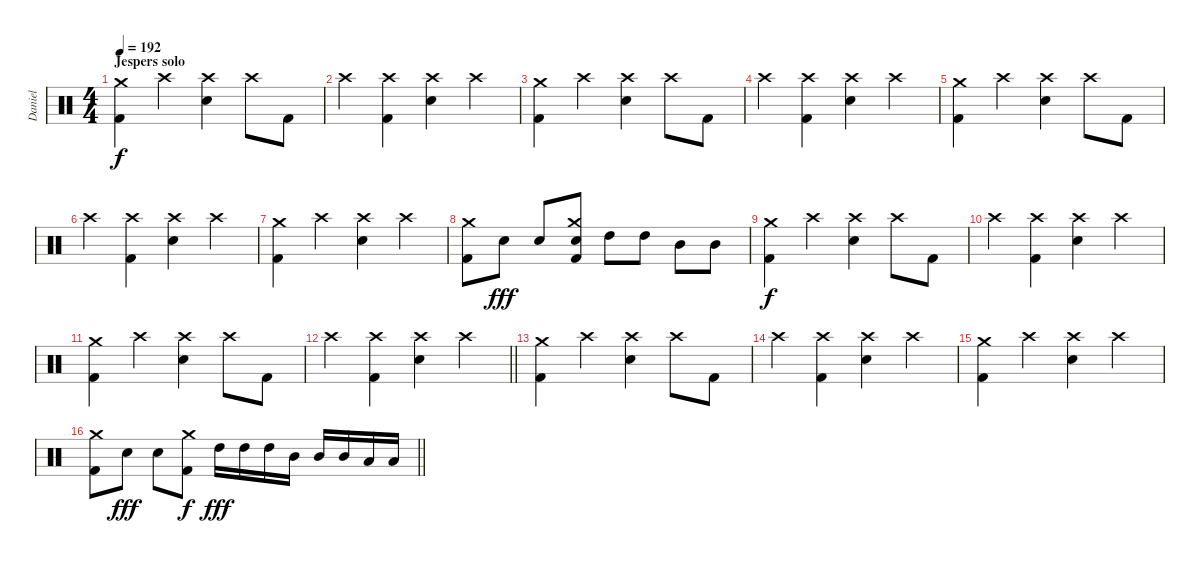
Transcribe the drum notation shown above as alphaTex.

\track ("Daniel" "Daniel") {instrument percussion}
\staff {score}
\articulation defaults
\ts (4 4)
\section ("" "Jespers solo")
\tempo 192
\clef neutral
\ks c
("Kick (hit) 2" "Crash medium (hit)").4{dy f} "Crash high (hit)".4 ("Electric Snare (hit)" "Crash high (hit)").4 "Crash high (hit)".8 "Kick (hit) 2".8 |
"Crash high (hit)".4 ("Kick (hit) 2" "Crash high (hit)").4 ("Electric Snare (hit)" "Crash high (hit)").4 "Crash high (hit)".4 |
("Kick (hit) 2" "Crash medium (hit)").4 "Crash high (hit)".4 ("Electric Snare (hit)" "Crash high (hit)").4 "Crash high (hit)".8 "Kick (hit) 2".8 |
"Crash high (hit)".4 ("Kick (hit) 2" "Crash high (hit)").4 ("Electric Snare (hit)" "Crash high (hit)").4 "Crash high (hit)".4 |
("Kick (hit) 2" "Crash medium (hit)").4 "Crash high (hit)".4 ("Electric Snare (hit)" "Crash high (hit)").4 "Crash high (hit)".8 "Kick (hit) 2".8 |
"Crash high (hit)".4 ("Kick (hit) 2" "Crash high (hit)").4 ("Electric Snare (hit)" "Crash high (hit)").4 "Crash high (hit)".4 |
("Kick (hit) 2" "Crash medium (hit)").4 "Crash high (hit)".4 ("Electric Snare (hit)" "Crash high (hit)").4 "Crash high (hit)".4 |
("Kick (hit) 2" "Crash medium (hit)").8 "Electric Snare (hit)".8{dy fff} "Electric Snare (hit)".8 ("Kick (hit) 2" "Electric Snare (hit)" "Crash medium (hit)").8 "High Tom (hit)".8 "High Tom (hit)".8 "Mid Tom (hit)".8 "Mid Tom (hit)".8 |
("Kick (hit) 2" "Crash medium (hit)").4{dy f} "Crash high (hit)".4 ("Electric Snare (hit)" "Crash high (hit)").4 "Crash high (hit)".8 "Kick (hit) 2".8 |
"Crash high (hit)".4 ("Kick (hit) 2" "Crash high (hit)").4 ("Electric Snare (hit)" "Crash high (hit)").4 "Crash high (hit)".4 |
("Kick (hit) 2" "Crash medium (hit)").4 "Crash high (hit)".4 ("Electric Snare (hit)" "Crash high (hit)").4 "Crash high (hit)".8 "Kick (hit) 2".8 |
\barLineRight lightlight "Crash high (hit)".4
("Kick (hit) 2" "Crash high (hit)").4 ("Electric Snare (hit)" "Crash high (hit)").4 "Crash high (hit)".4 |
("Kick (hit) 2" "Crash medium (hit)").4 "Crash high (hit)".4 ("Electric Snare (hit)" "Crash high (hit)").4 "Crash high (hit)".8 "Kick (hit) 2".8 |
"Crash high (hit)".4 ("Kick (hit) 2" "Crash high (hit)").4 ("Electric Snare (hit)" "Crash high (hit)").4 "Crash high (hit)".4 |
("Kick (hit) 2" "Crash medium (hit)").4 "Crash high (hit)".4 ("Electric Snare (hit)" "Crash high (hit)").4 "Crash high (hit)".4 |
\barLineRight lightlight
("Kick (hit) 2" "Crash medium (hit)").8 "Electric Snare (hit)".8{dy fff} "Electric Snare (hit)".8 ("Kick (hit) 2" "Crash medium (hit)").8{dy f} "High Tom (hit)".16{dy fff} "High Tom (hit)".16 "High Tom (hit)".16 "Mid Tom (hit)".16 "Mid Tom (hit)".16 "Mid Tom (hit)".16 "Low Tom (hit)".16 "Low Tom (hit)".16
